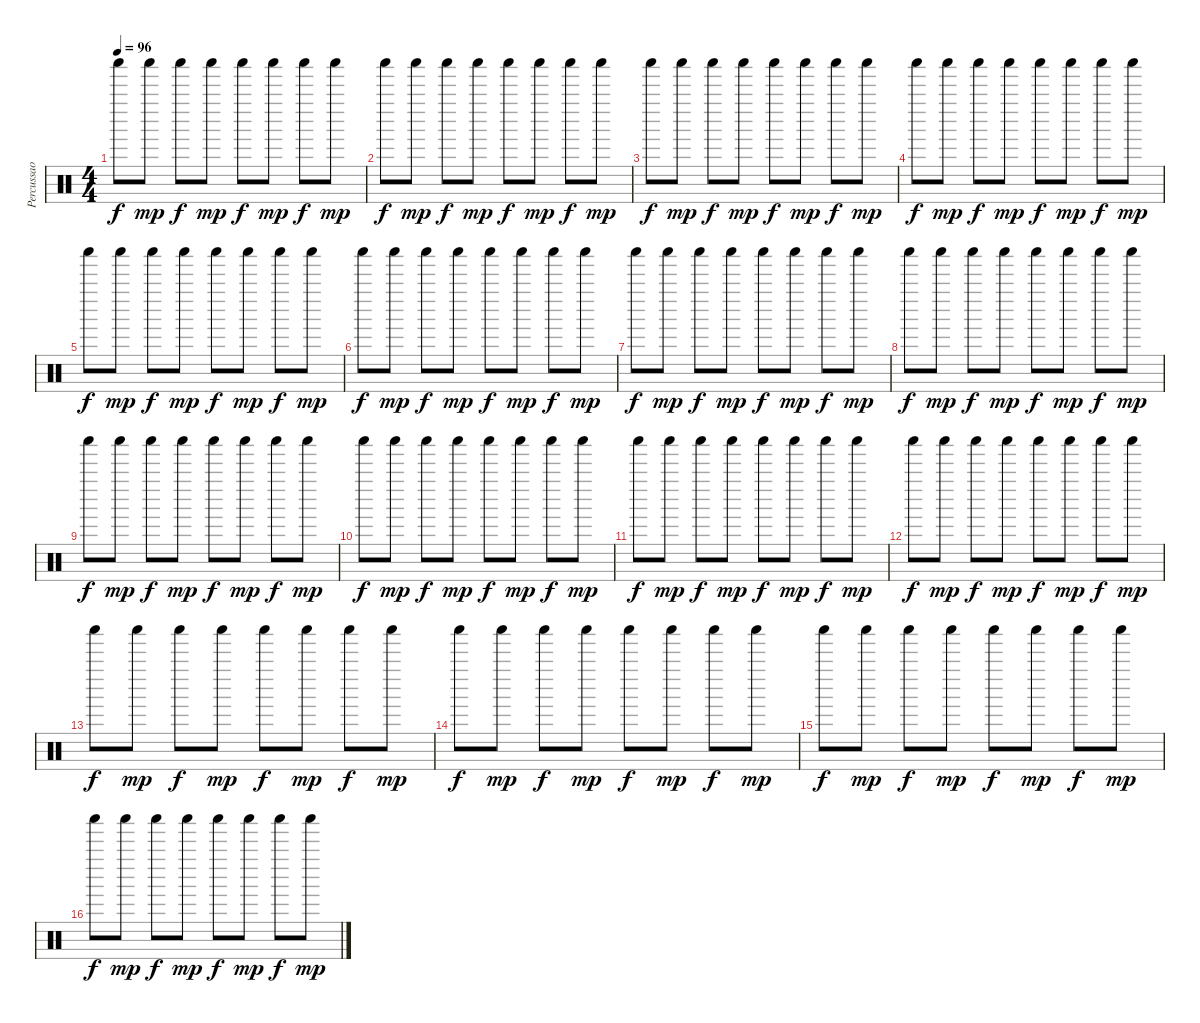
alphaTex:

\track ("Percussao" "Percussao") {instrument percussion}
\staff {score}
\articulation defaults
\ts (4 4)
\tempo 96
\clef neutral
\ks c "Shaker (hit)".8{dy f volume 4} "Shaker (hit)".8{dy mp} "Shaker (hit)".8{dy f} "Shaker (hit)".8{dy mp} "Shaker (hit)".8{dy f} "Shaker (hit)".8{dy mp} "Shaker (hit)".8{dy f} "Shaker (hit)".8{dy mp}
|
"Shaker (hit)".8{dy f volume 4} "Shaker (hit)".8{dy mp} "Shaker (hit)".8{dy f} "Shaker (hit)".8{dy mp} "Shaker (hit)".8{dy f} "Shaker (hit)".8{dy mp} "Shaker (hit)".8{dy f} "Shaker (hit)".8{dy mp} |
"Shaker (hit)".8{dy f volume 4} "Shaker (hit)".8{dy mp} "Shaker (hit)".8{dy f} "Shaker (hit)".8{dy mp} "Shaker (hit)".8{dy f} "Shaker (hit)".8{dy mp} "Shaker (hit)".8{dy f} "Shaker (hit)".8{dy mp} |
"Shaker (hit)".8{dy f volume 4} "Shaker (hit)".8{dy mp} "Shaker (hit)".8{dy f} "Shaker (hit)".8{dy mp} "Shaker (hit)".8{dy f} "Shaker (hit)".8{dy mp} "Shaker (hit)".8{dy f} "Shaker (hit)".8{dy mp} |
"Shaker (hit)".8{dy f volume 4} "Shaker (hit)".8{dy mp} "Shaker (hit)".8{dy f} "Shaker (hit)".8{dy mp} "Shaker (hit)".8{dy f} "Shaker (hit)".8{dy mp} "Shaker (hit)".8{dy f} "Shaker (hit)".8{dy mp} |
"Shaker (hit)".8{dy f volume 4} "Shaker (hit)".8{dy mp} "Shaker (hit)".8{dy f} "Shaker (hit)".8{dy mp} "Shaker (hit)".8{dy f} "Shaker (hit)".8{dy mp} "Shaker (hit)".8{dy f} "Shaker (hit)".8{dy mp} |
"Shaker (hit)".8{dy f volume 4} "Shaker (hit)".8{dy mp} "Shaker (hit)".8{dy f} "Shaker (hit)".8{dy mp} "Shaker (hit)".8{dy f} "Shaker (hit)".8{dy mp} "Shaker (hit)".8{dy f} "Shaker (hit)".8{dy mp} |
"Shaker (hit)".8{dy f volume 4} "Shaker (hit)".8{dy mp} "Shaker (hit)".8{dy f} "Shaker (hit)".8{dy mp} "Shaker (hit)".8{dy f} "Shaker (hit)".8{dy mp} "Shaker (hit)".8{dy f} "Shaker (hit)".8{dy mp} |
"Shaker (hit)".8{dy f volume 4} "Shaker (hit)".8{dy mp} "Shaker (hit)".8{dy f} "Shaker (hit)".8{dy mp} "Shaker (hit)".8{dy f} "Shaker (hit)".8{dy mp} "Shaker (hit)".8{dy f} "Shaker (hit)".8{dy mp} |
"Shaker (hit)".8{dy f volume 4} "Shaker (hit)".8{dy mp} "Shaker (hit)".8{dy f} "Shaker (hit)".8{dy mp} "Shaker (hit)".8{dy f} "Shaker (hit)".8{dy mp} "Shaker (hit)".8{dy f} "Shaker (hit)".8{dy mp} |
"Shaker (hit)".8{dy f volume 4} "Shaker (hit)".8{dy mp} "Shaker (hit)".8{dy f} "Shaker (hit)".8{dy mp} "Shaker (hit)".8{dy f} "Shaker (hit)".8{dy mp} "Shaker (hit)".8{dy f} "Shaker (hit)".8{dy mp} |
"Shaker (hit)".8{dy f volume 4} "Shaker (hit)".8{dy mp} "Shaker (hit)".8{dy f} "Shaker (hit)".8{dy mp} "Shaker (hit)".8{dy f} "Shaker (hit)".8{dy mp} "Shaker (hit)".8{dy f} "Shaker (hit)".8{dy mp} |
"Shaker (hit)".8{dy f volume 4} "Shaker (hit)".8{dy mp} "Shaker (hit)".8{dy f} "Shaker (hit)".8{dy mp} "Shaker (hit)".8{dy f} "Shaker (hit)".8{dy mp} "Shaker (hit)".8{dy f} "Shaker (hit)".8{dy mp} |
"Shaker (hit)".8{dy f volume 4} "Shaker (hit)".8{dy mp} "Shaker (hit)".8{dy f} "Shaker (hit)".8{dy mp} "Shaker (hit)".8{dy f} "Shaker (hit)".8{dy mp} "Shaker (hit)".8{dy f} "Shaker (hit)".8{dy mp} |
"Shaker (hit)".8{dy f volume 4} "Shaker (hit)".8{dy mp} "Shaker (hit)".8{dy f} "Shaker (hit)".8{dy mp} "Shaker (hit)".8{dy f} "Shaker (hit)".8{dy mp} "Shaker (hit)".8{dy f} "Shaker (hit)".8{dy mp} |
"Shaker (hit)".8{dy f volume 4} "Shaker (hit)".8{dy mp} "Shaker (hit)".8{dy f} "Shaker (hit)".8{dy mp} "Shaker (hit)".8{dy f} "Shaker (hit)".8{dy mp} "Shaker (hit)".8{dy f} "Shaker (hit)".8{dy mp}
